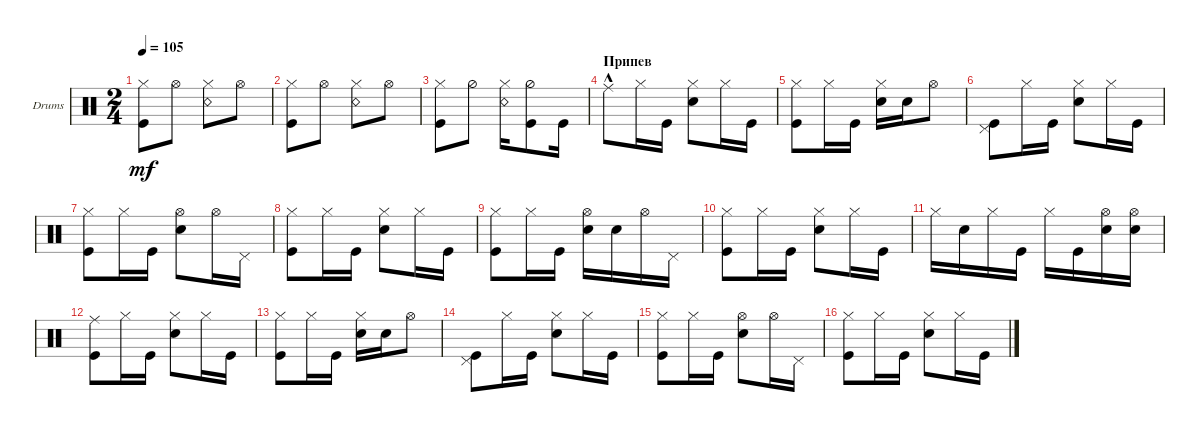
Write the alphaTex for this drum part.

\defaultSystemsLayout 4
\bracketExtendMode groupsimilarinstruments
\firstSystemTrackNameOrientation horizontal
\otherSystemsTrackNameOrientation horizontal
\track ("Drumkit" "Drums") {instrument percussion}
\staff {score}
\articulation defaults
\ts (2 4)
\tempo 105
\clef neutral
\scale
0.5
\ks c
("Kick (hit)" "Hi-Hat (closed)").8{dy mf} "Hi-Hat (open)".8 ("Hi-Hat (closed)" "Snare (rim shot)").8 "Hi-Hat (open)".8 |
\scale
0.5 ("Kick (hit)" "Hi-Hat (closed)").8 "Hi-Hat (open)".8 ("Hi-Hat (closed)" "Snare (rim shot)").8 "Hi-Hat (open)".8 |
\scale
0.5 ("Hi-Hat (closed)" "Kick (hit)").8 "Hi-Hat (half)".8 ("Snare (rim shot)" "Hi-Hat (closed)").16 ("Kick (hit)" "Hi-Hat (half)").8 "Kick (hit)".16 |
\section ("" "Припев")
\scale
0.5 "Ride (middle)"{hac}.8 "Hi-Hat (closed)".16 "Kick (hit)".16 ("Hi-Hat (closed)" "Snare (hit) 2").8 "Hi-Hat (closed)".16 "Kick (hit)".16 |
\scale
0.5 ("Hi-Hat (closed)" "Kick (hit)").8 "Hi-Hat (closed)".16 "Kick (hit)".16 ("Hi-Hat (closed)" "Snare (hit) 2").16 "Snare (hit) 2".16 "Hi-Hat (open)".8 |
\scale
0.5 ("Pedal Hi-Hat (hit)" "Kick (hit)").8 "Hi-Hat (closed)".16 "Kick (hit)".16 ("Hi-Hat (closed)" "Snare (hit) 2").8 "Hi-Hat (closed)".16 "Kick (hit)".16 |
\scale
0.5 ("Hi-Hat (closed)" "Kick (hit)").8 "Hi-Hat (closed)".16 "Kick (hit)".16 ("Hi-Hat (open)" "Snare (hit) 2").8 "Hi-Hat (open)".16 "Pedal Hi-Hat (hit)".16 |
\scale
0.5 ("Hi-Hat (closed)" "Kick (hit)").8 "Hi-Hat (closed)".16 "Kick (hit)".16 ("Hi-Hat (closed)" "Snare (hit) 2").8 "Hi-Hat (closed)".16 "Kick (hit)".16 |
\scale
0.5 ("Hi-Hat (closed)" "Kick (hit)").8 "Hi-Hat (closed)".16 "Kick (hit)".16 ("Hi-Hat (open)" "Snare (hit) 2").16 "Snare (hit) 2".16 "Hi-Hat (open)".16 "Pedal Hi-Hat (hit)".16 |
\scale
0.5 ("Hi-Hat (closed)" "Kick (hit)").8 "Hi-Hat (closed)".16 "Kick (hit)".16 ("Hi-Hat (closed)" "Snare (hit) 2").8 "Hi-Hat (closed)".16 "Kick (hit)".16 |
\scale
0.5 "Hi-Hat (closed)".16 "Snare (hit) 2".16 "Hi-Hat (closed)".16 "Kick (hit)".16 "Hi-Hat (closed)".16 "Kick (hit)".16 ("Hi-Hat (open)" "Snare (hit) 2").16 ("Hi-Hat (open)" "Snare (hit) 2").16 |
\scale
0.5 ("Ride (middle)" "Kick (hit)").8 "Hi-Hat (closed)".16 "Kick (hit)".16 ("Hi-Hat (closed)" "Snare (hit) 2").8 "Hi-Hat (closed)".16 "Kick (hit)".16 |
\scale
0.5 ("Hi-Hat (closed)" "Kick (hit)").8 "Hi-Hat (closed)".16 "Kick (hit)".16 ("Hi-Hat (closed)" "Snare (hit) 2").16 "Snare (hit) 2".16 "Hi-Hat (open)".8 |
\scale
0.5 ("Pedal Hi-Hat (hit)" "Kick (hit)").8 "Hi-Hat (closed)".16 "Kick (hit)".16 ("Hi-Hat (closed)" "Snare (hit) 2").8 "Hi-Hat (closed)".16 "Kick (hit)".16 |
\scale
0.5 ("Hi-Hat (closed)" "Kick (hit)").8 "Hi-Hat (closed)".16 "Kick (hit)".16 ("Hi-Hat (open)" "Snare (hit) 2").8 "Hi-Hat (open)".16 "Pedal Hi-Hat (hit)".16 |
\scale
0.5 ("Hi-Hat (closed)" "Kick (hit)").8 "Hi-Hat (closed)".16 "Kick (hit)".16 ("Hi-Hat (closed)" "Snare (hit) 2").8 "Hi-Hat (closed)".16 "Kick (hit)".16
